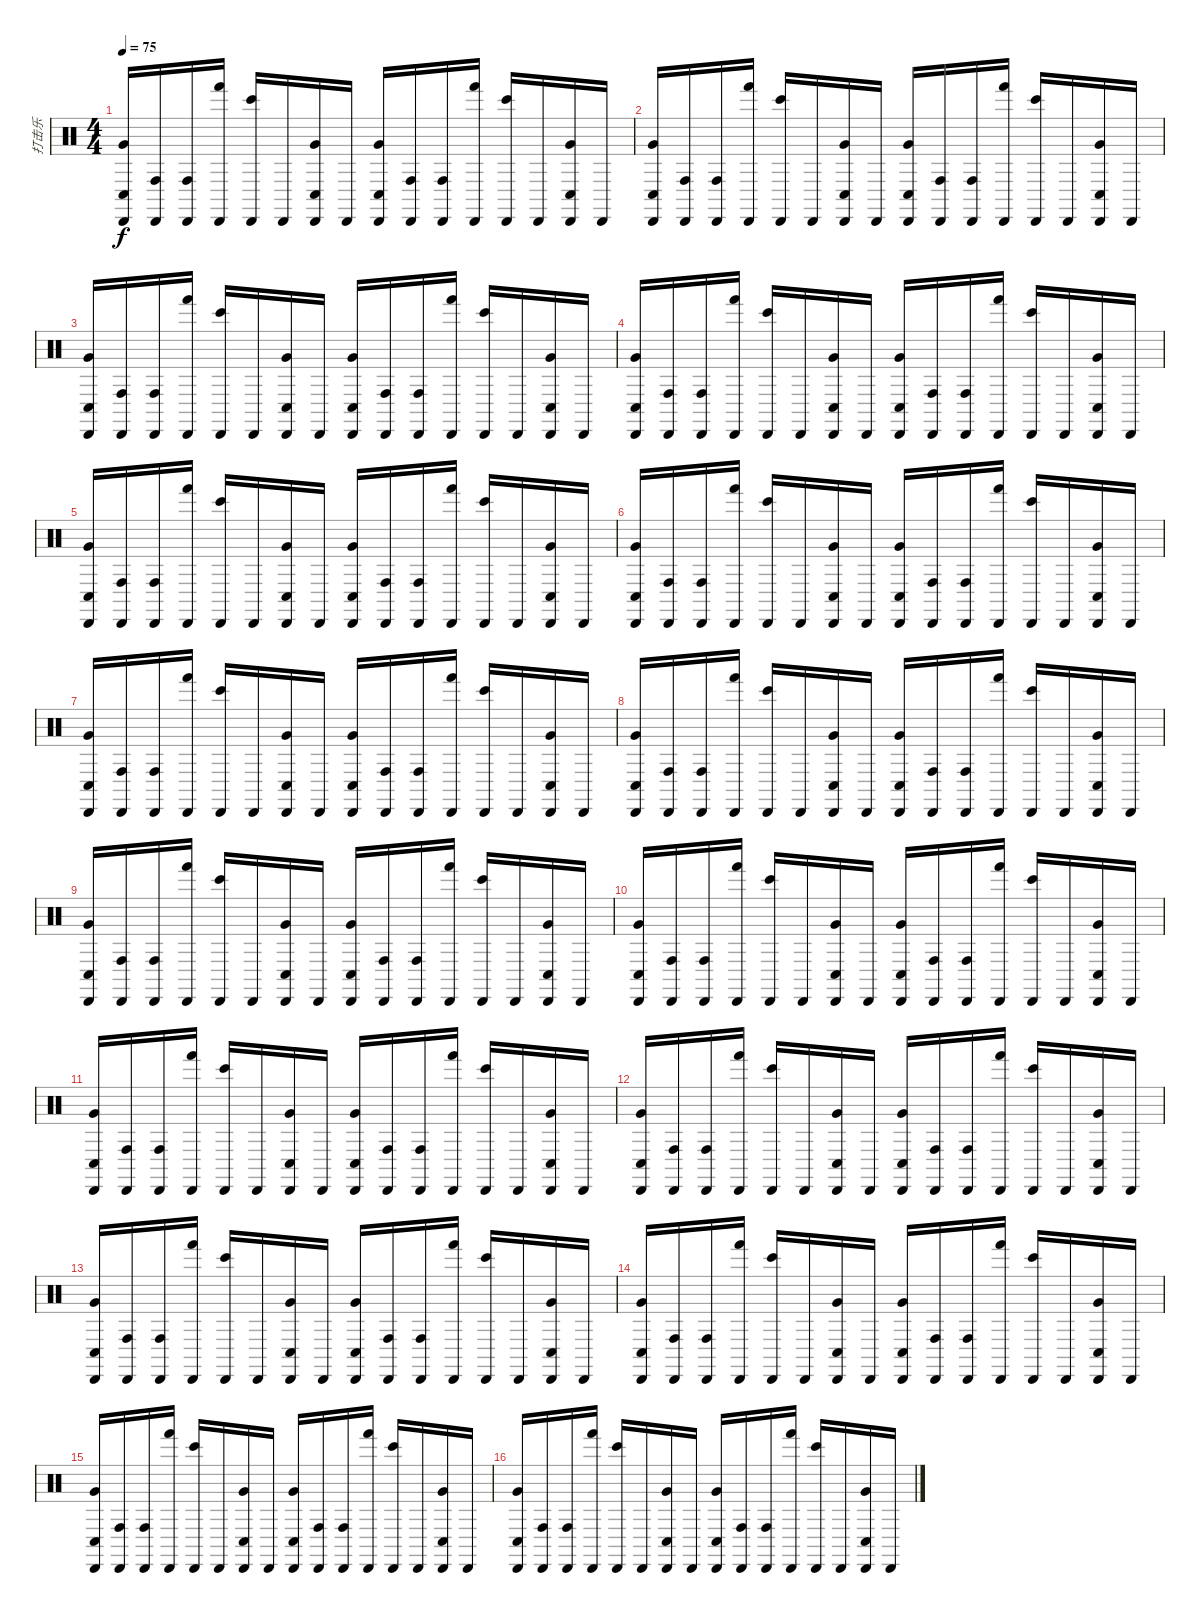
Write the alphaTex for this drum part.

\track ("打击乐" "打击乐") {instrument percussion}
\staff {score}
\articulation defaults
\ts (4 4)
\tempo 75
\clef neutral
\ks c
("Conga low (hit)" "Very Low Tom (hit)" "Cabasa (hit)").16{dy f} ("Conga high (hit)" "Cabasa (hit)").16 ("Conga high (hit)" "Cabasa (hit)").16 ("Hand (hit)" "Cabasa (hit)").16 ("Bongo High (hit)" "Cabasa (hit)").16 "Cabasa (hit)".16 ("Conga low (hit)" "Very Low Tom (hit)" "Cabasa (hit)").16 "Cabasa (hit)".16 ("Conga low (hit)" "Very Low Tom (hit)" "Cabasa (hit)").16 ("Conga high (hit)" "Cabasa (hit)").16 ("Conga high (hit)" "Cabasa (hit)").16 ("Hand (hit)" "Cabasa (hit)").16 ("Bongo High (hit)" "Cabasa (hit)").16 "Cabasa (hit)".16 ("Conga low (hit)" "Very Low Tom (hit)" "Cabasa (hit)").16 "Cabasa (hit)".16 |
("Conga low (hit)" "Very Low Tom (hit)" "Cabasa (hit)").16 ("Conga high (hit)" "Cabasa (hit)").16 ("Conga high (hit)" "Cabasa (hit)").16 ("Hand (hit)" "Cabasa (hit)").16 ("Bongo High (hit)" "Cabasa (hit)").16 "Cabasa (hit)".16 ("Conga low (hit)" "Very Low Tom (hit)" "Cabasa (hit)").16 "Cabasa (hit)".16 ("Conga low (hit)" "Very Low Tom (hit)" "Cabasa (hit)").16 ("Conga high (hit)" "Cabasa (hit)").16 ("Conga high (hit)" "Cabasa (hit)").16 ("Hand (hit)" "Cabasa (hit)").16 ("Bongo High (hit)" "Cabasa (hit)").16 "Cabasa (hit)".16 ("Conga low (hit)" "Very Low Tom (hit)" "Cabasa (hit)").16 "Cabasa (hit)".16 |
("Conga low (hit)" "Very Low Tom (hit)" "Cabasa (hit)").16 ("Conga high (hit)" "Cabasa (hit)").16 ("Conga high (hit)" "Cabasa (hit)").16 ("Hand (hit)" "Cabasa (hit)").16 ("Bongo High (hit)" "Cabasa (hit)").16 "Cabasa (hit)".16 ("Conga low (hit)" "Very Low Tom (hit)" "Cabasa (hit)").16 "Cabasa (hit)".16 ("Conga low (hit)" "Very Low Tom (hit)" "Cabasa (hit)").16 ("Conga high (hit)" "Cabasa (hit)").16 ("Conga high (hit)" "Cabasa (hit)").16 ("Hand (hit)" "Cabasa (hit)").16 ("Bongo High (hit)" "Cabasa (hit)").16 "Cabasa (hit)".16 ("Conga low (hit)" "Very Low Tom (hit)" "Cabasa (hit)").16 "Cabasa (hit)".16 |
("Conga low (hit)" "Very Low Tom (hit)" "Cabasa (hit)").16 ("Conga high (hit)" "Cabasa (hit)").16 ("Conga high (hit)" "Cabasa (hit)").16 ("Hand (hit)" "Cabasa (hit)").16 ("Bongo High (hit)" "Cabasa (hit)").16 "Cabasa (hit)".16 ("Conga low (hit)" "Very Low Tom (hit)" "Cabasa (hit)").16 "Cabasa (hit)".16 ("Conga low (hit)" "Very Low Tom (hit)" "Cabasa (hit)").16 ("Conga high (hit)" "Cabasa (hit)").16 ("Conga high (hit)" "Cabasa (hit)").16 ("Hand (hit)" "Cabasa (hit)").16 ("Bongo High (hit)" "Cabasa (hit)").16 "Cabasa (hit)".16 ("Conga low (hit)" "Very Low Tom (hit)" "Cabasa (hit)").16 "Cabasa (hit)".16 |
("Conga low (hit)" "Very Low Tom (hit)" "Cabasa (hit)").16 ("Conga high (hit)" "Cabasa (hit)").16 ("Conga high (hit)" "Cabasa (hit)").16 ("Hand (hit)" "Cabasa (hit)").16 ("Bongo High (hit)" "Cabasa (hit)").16 "Cabasa (hit)".16 ("Conga low (hit)" "Very Low Tom (hit)" "Cabasa (hit)").16 "Cabasa (hit)".16 ("Conga low (hit)" "Very Low Tom (hit)" "Cabasa (hit)").16 ("Conga high (hit)" "Cabasa (hit)").16 ("Conga high (hit)" "Cabasa (hit)").16 ("Hand (hit)" "Cabasa (hit)").16 ("Bongo High (hit)" "Cabasa (hit)").16 "Cabasa (hit)".16 ("Conga low (hit)" "Very Low Tom (hit)" "Cabasa (hit)").16 "Cabasa (hit)".16 |
("Conga low (hit)" "Very Low Tom (hit)" "Cabasa (hit)").16 ("Conga high (hit)" "Cabasa (hit)").16 ("Conga high (hit)" "Cabasa (hit)").16 ("Hand (hit)" "Cabasa (hit)").16 ("Bongo High (hit)" "Cabasa (hit)").16 "Cabasa (hit)".16 ("Conga low (hit)" "Very Low Tom (hit)" "Cabasa (hit)").16 "Cabasa (hit)".16 ("Conga low (hit)" "Very Low Tom (hit)" "Cabasa (hit)").16 ("Conga high (hit)" "Cabasa (hit)").16 ("Conga high (hit)" "Cabasa (hit)").16 ("Hand (hit)" "Cabasa (hit)").16 ("Bongo High (hit)" "Cabasa (hit)").16 "Cabasa (hit)".16 ("Conga low (hit)" "Very Low Tom (hit)" "Cabasa (hit)").16 "Cabasa (hit)".16 |
("Conga low (hit)" "Very Low Tom (hit)" "Cabasa (hit)").16 ("Conga high (hit)" "Cabasa (hit)").16 ("Conga high (hit)" "Cabasa (hit)").16 ("Hand (hit)" "Cabasa (hit)").16 ("Bongo High (hit)" "Cabasa (hit)").16 "Cabasa (hit)".16 ("Conga low (hit)" "Very Low Tom (hit)" "Cabasa (hit)").16 "Cabasa (hit)".16 ("Conga low (hit)" "Very Low Tom (hit)" "Cabasa (hit)").16 ("Conga high (hit)" "Cabasa (hit)").16 ("Conga high (hit)" "Cabasa (hit)").16 ("Hand (hit)" "Cabasa (hit)").16 ("Bongo High (hit)" "Cabasa (hit)").16 "Cabasa (hit)".16 ("Conga low (hit)" "Very Low Tom (hit)" "Cabasa (hit)").16 "Cabasa (hit)".16 |
("Conga low (hit)" "Very Low Tom (hit)" "Cabasa (hit)").16 ("Conga high (hit)" "Cabasa (hit)").16 ("Conga high (hit)" "Cabasa (hit)").16 ("Hand (hit)" "Cabasa (hit)").16 ("Bongo High (hit)" "Cabasa (hit)").16 "Cabasa (hit)".16 ("Conga low (hit)" "Very Low Tom (hit)" "Cabasa (hit)").16 "Cabasa (hit)".16 ("Conga low (hit)" "Very Low Tom (hit)" "Cabasa (hit)").16 ("Conga high (hit)" "Cabasa (hit)").16 ("Conga high (hit)" "Cabasa (hit)").16 ("Hand (hit)" "Cabasa (hit)").16 ("Bongo High (hit)" "Cabasa (hit)").16 "Cabasa (hit)".16 ("Conga low (hit)" "Very Low Tom (hit)" "Cabasa (hit)").16 "Cabasa (hit)".16 |
("Conga low (hit)" "Very Low Tom (hit)" "Cabasa (hit)").16 ("Conga high (hit)" "Cabasa (hit)").16 ("Conga high (hit)" "Cabasa (hit)").16 ("Hand (hit)" "Cabasa (hit)").16 ("Bongo High (hit)" "Cabasa (hit)").16 "Cabasa (hit)".16 ("Conga low (hit)" "Very Low Tom (hit)" "Cabasa (hit)").16 "Cabasa (hit)".16 ("Conga low (hit)" "Very Low Tom (hit)" "Cabasa (hit)").16 ("Conga high (hit)" "Cabasa (hit)").16 ("Conga high (hit)" "Cabasa (hit)").16 ("Hand (hit)" "Cabasa (hit)").16 ("Bongo High (hit)" "Cabasa (hit)").16 "Cabasa (hit)".16 ("Conga low (hit)" "Very Low Tom (hit)" "Cabasa (hit)").16 "Cabasa (hit)".16 |
("Conga low (hit)" "Very Low Tom (hit)" "Cabasa (hit)").16 ("Conga high (hit)" "Cabasa (hit)").16 ("Conga high (hit)" "Cabasa (hit)").16 ("Hand (hit)" "Cabasa (hit)").16 ("Bongo High (hit)" "Cabasa (hit)").16 "Cabasa (hit)".16 ("Conga low (hit)" "Very Low Tom (hit)" "Cabasa (hit)").16 "Cabasa (hit)".16 ("Conga low (hit)" "Very Low Tom (hit)" "Cabasa (hit)").16 ("Conga high (hit)" "Cabasa (hit)").16 ("Conga high (hit)" "Cabasa (hit)").16 ("Hand (hit)" "Cabasa (hit)").16 ("Bongo High (hit)" "Cabasa (hit)").16 "Cabasa (hit)".16 ("Conga low (hit)" "Very Low Tom (hit)" "Cabasa (hit)").16 "Cabasa (hit)".16 |
("Conga low (hit)" "Very Low Tom (hit)" "Cabasa (hit)").16 ("Conga high (hit)" "Cabasa (hit)").16 ("Conga high (hit)" "Cabasa (hit)").16 ("Hand (hit)" "Cabasa (hit)").16 ("Bongo High (hit)" "Cabasa (hit)").16 "Cabasa (hit)".16 ("Conga low (hit)" "Very Low Tom (hit)" "Cabasa (hit)").16 "Cabasa (hit)".16 ("Conga low (hit)" "Very Low Tom (hit)" "Cabasa (hit)").16 ("Conga high (hit)" "Cabasa (hit)").16 ("Conga high (hit)" "Cabasa (hit)").16 ("Hand (hit)" "Cabasa (hit)").16 ("Bongo High (hit)" "Cabasa (hit)").16 "Cabasa (hit)".16 ("Conga low (hit)" "Very Low Tom (hit)" "Cabasa (hit)").16 "Cabasa (hit)".16 |
("Conga low (hit)" "Very Low Tom (hit)" "Cabasa (hit)").16 ("Conga high (hit)" "Cabasa (hit)").16 ("Conga high (hit)" "Cabasa (hit)").16 ("Hand (hit)" "Cabasa (hit)").16 ("Bongo High (hit)" "Cabasa (hit)").16 "Cabasa (hit)".16 ("Conga low (hit)" "Very Low Tom (hit)" "Cabasa (hit)").16 "Cabasa (hit)".16 ("Conga low (hit)" "Very Low Tom (hit)" "Cabasa (hit)").16 ("Conga high (hit)" "Cabasa (hit)").16 ("Conga high (hit)" "Cabasa (hit)").16 ("Hand (hit)" "Cabasa (hit)").16 ("Bongo High (hit)" "Cabasa (hit)").16 "Cabasa (hit)".16 ("Conga low (hit)" "Very Low Tom (hit)" "Cabasa (hit)").16 "Cabasa (hit)".16 |
("Conga low (hit)" "Very Low Tom (hit)" "Cabasa (hit)").16 ("Conga high (hit)" "Cabasa (hit)").16 ("Conga high (hit)" "Cabasa (hit)").16 ("Hand (hit)" "Cabasa (hit)").16 ("Bongo High (hit)" "Cabasa (hit)").16 "Cabasa (hit)".16 ("Conga low (hit)" "Very Low Tom (hit)" "Cabasa (hit)").16 "Cabasa (hit)".16 ("Conga low (hit)" "Very Low Tom (hit)" "Cabasa (hit)").16 ("Conga high (hit)" "Cabasa (hit)").16 ("Conga high (hit)" "Cabasa (hit)").16 ("Hand (hit)" "Cabasa (hit)").16 ("Bongo High (hit)" "Cabasa (hit)").16 "Cabasa (hit)".16 ("Conga low (hit)" "Very Low Tom (hit)" "Cabasa (hit)").16 "Cabasa (hit)".16 |
("Conga low (hit)" "Very Low Tom (hit)" "Cabasa (hit)").16 ("Conga high (hit)" "Cabasa (hit)").16 ("Conga high (hit)" "Cabasa (hit)").16 ("Hand (hit)" "Cabasa (hit)").16 ("Bongo High (hit)" "Cabasa (hit)").16 "Cabasa (hit)".16 ("Conga low (hit)" "Very Low Tom (hit)" "Cabasa (hit)").16 "Cabasa (hit)".16 ("Conga low (hit)" "Very Low Tom (hit)" "Cabasa (hit)").16 ("Conga high (hit)" "Cabasa (hit)").16 ("Conga high (hit)" "Cabasa (hit)").16 ("Hand (hit)" "Cabasa (hit)").16 ("Bongo High (hit)" "Cabasa (hit)").16 "Cabasa (hit)".16 ("Conga low (hit)" "Very Low Tom (hit)" "Cabasa (hit)").16 "Cabasa (hit)".16 |
("Conga low (hit)" "Very Low Tom (hit)" "Cabasa (hit)").16 ("Conga high (hit)" "Cabasa (hit)").16 ("Conga high (hit)" "Cabasa (hit)").16 ("Hand (hit)" "Cabasa (hit)").16 ("Bongo High (hit)" "Cabasa (hit)").16 "Cabasa (hit)".16 ("Conga low (hit)" "Very Low Tom (hit)" "Cabasa (hit)").16 "Cabasa (hit)".16 ("Conga low (hit)" "Very Low Tom (hit)" "Cabasa (hit)").16 ("Conga high (hit)" "Cabasa (hit)").16 ("Conga high (hit)" "Cabasa (hit)").16 ("Hand (hit)" "Cabasa (hit)").16 ("Bongo High (hit)" "Cabasa (hit)").16 "Cabasa (hit)".16 ("Conga low (hit)" "Very Low Tom (hit)" "Cabasa (hit)").16 "Cabasa (hit)".16 |
("Conga low (hit)" "Very Low Tom (hit)" "Cabasa (hit)").16 ("Conga high (hit)" "Cabasa (hit)").16 ("Conga high (hit)" "Cabasa (hit)").16 ("Hand (hit)" "Cabasa (hit)").16 ("Bongo High (hit)" "Cabasa (hit)").16 "Cabasa (hit)".16 ("Conga low (hit)" "Very Low Tom (hit)" "Cabasa (hit)").16 "Cabasa (hit)".16 ("Conga low (hit)" "Very Low Tom (hit)" "Cabasa (hit)").16 ("Conga high (hit)" "Cabasa (hit)").16 ("Conga high (hit)" "Cabasa (hit)").16 ("Hand (hit)" "Cabasa (hit)").16 ("Bongo High (hit)" "Cabasa (hit)").16 "Cabasa (hit)".16 ("Conga low (hit)" "Very Low Tom (hit)" "Cabasa (hit)").16 "Cabasa (hit)".16
